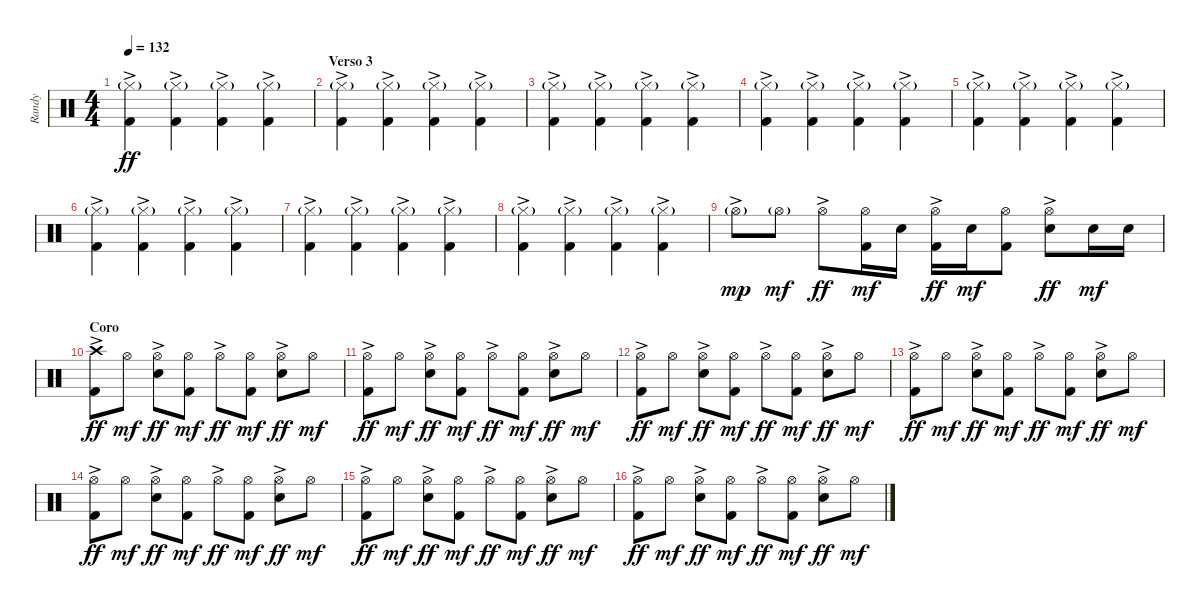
\track ("Randy" "Randy") {instrument percussion}
\staff {score}
\articulation defaults
\ts (4 4)
\tempo 132
\clef neutral
\ks c
("Hi-Hat (closed)"{g} "Kick (hit) 2"{ac}).4{dy ff} ("Hi-Hat (closed)"{g} "Kick (hit) 2"{ac}).4 ("Hi-Hat (closed)"{g} "Kick (hit) 2"{ac}).4 ("Hi-Hat (closed)"{g} "Kick (hit) 2"{ac}).4 |
\section ("" "Verso 3")
("Hi-Hat (closed)"{g} "Kick (hit) 2"{ac}).4 ("Hi-Hat (closed)"{g} "Kick (hit) 2"{ac}).4 ("Hi-Hat (closed)"{g} "Kick (hit) 2"{ac}).4 ("Hi-Hat (closed)"{g} "Kick (hit) 2"{ac}).4 |
("Hi-Hat (closed)"{g} "Kick (hit) 2"{ac}).4 ("Hi-Hat (closed)"{g} "Kick (hit) 2"{ac}).4 ("Hi-Hat (closed)"{g} "Kick (hit) 2"{ac}).4 ("Hi-Hat (closed)"{g} "Kick (hit) 2"{ac}).4 |
("Hi-Hat (closed)"{g} "Kick (hit) 2"{ac}).4 ("Hi-Hat (closed)"{g} "Kick (hit) 2"{ac}).4 ("Hi-Hat (closed)"{g} "Kick (hit) 2"{ac}).4 ("Hi-Hat (closed)"{g} "Kick (hit) 2"{ac}).4 |
("Hi-Hat (closed)"{g} "Kick (hit) 2"{ac}).4 ("Hi-Hat (closed)"{g} "Kick (hit) 2"{ac}).4 ("Hi-Hat (closed)"{g} "Kick (hit) 2"{ac}).4 ("Hi-Hat (closed)"{g} "Kick (hit) 2"{ac}).4 |
("Hi-Hat (closed)"{g} "Kick (hit) 2"{ac}).4 ("Hi-Hat (closed)"{g} "Kick (hit) 2"{ac}).4 ("Hi-Hat (closed)"{g} "Kick (hit) 2"{ac}).4 ("Hi-Hat (closed)"{g} "Kick (hit) 2"{ac}).4 |
("Hi-Hat (closed)"{g} "Kick (hit) 2"{ac}).4 ("Hi-Hat (closed)"{g} "Kick (hit) 2"{ac}).4 ("Hi-Hat (closed)"{g} "Kick (hit) 2"{ac}).4 ("Hi-Hat (closed)"{g} "Kick (hit) 2"{ac}).4 |
("Hi-Hat (closed)"{g} "Kick (hit) 2"{ac}).4 ("Hi-Hat (closed)"{g} "Kick (hit) 2"{ac}).4 ("Hi-Hat (closed)"{g} "Kick (hit) 2"{ac}).4 ("Hi-Hat (closed)"{g} "Kick (hit) 2"{ac}).4 |
"Hi-Hat (open)"{g ac}.8{dy mp} "Hi-Hat (open)"{g}.8{dy mf} "Hi-Hat (open)"{ac}.8{dy ff} ("Hi-Hat (open)" "Kick (hit) 2").16{dy mf} "Snare (hit) 2".16 ("Hi-Hat (open)"{ac} "Kick (hit) 2").16{dy ff} "Snare (hit) 2".16{dy mf} ("Hi-Hat (open)" "Kick (hit) 2").8 ("Hi-Hat (open)"{ac} "Snare (hit) 2").8{dy ff} "Snare (hit) 2".16{dy mf} "Snare (hit) 2".16 |
\section ("" "Coro")
("Crash high (hit)"{ac} "Kick (hit) 2").8{dy ff} "Hi-Hat (open)".8{dy mf} ("Hi-Hat (open)"{ac} "Snare (hit) 2").8{dy ff} ("Hi-Hat (open)" "Kick (hit) 2").8{dy mf} "Hi-Hat (open)"{ac}.8{dy ff} ("Hi-Hat (open)" "Kick (hit) 2").8{dy mf} ("Hi-Hat (open)"{ac} "Snare (hit) 2").8{dy ff} "Hi-Hat (open)".8{dy mf} |
("Hi-Hat (open)"{ac} "Kick (hit) 2").8{dy ff} "Hi-Hat (open)".8{dy mf} ("Hi-Hat (open)"{ac} "Snare (hit) 2").8{dy ff} ("Hi-Hat (open)" "Kick (hit) 2").8{dy mf} "Hi-Hat (open)"{ac}.8{dy ff} ("Hi-Hat (open)" "Kick (hit) 2").8{dy mf} ("Hi-Hat (open)"{ac} "Snare (hit) 2").8{dy ff} "Hi-Hat (open)".8{dy mf} |
("Hi-Hat (open)"{ac} "Kick (hit) 2").8{dy ff} "Hi-Hat (open)".8{dy mf} ("Hi-Hat (open)"{ac} "Snare (hit) 2").8{dy ff} ("Hi-Hat (open)" "Kick (hit) 2").8{dy mf} "Hi-Hat (open)"{ac}.8{dy ff} ("Hi-Hat (open)" "Kick (hit) 2").8{dy mf} ("Hi-Hat (open)"{ac} "Snare (hit) 2").8{dy ff} "Hi-Hat (open)".8{dy mf} |
("Hi-Hat (open)"{ac} "Kick (hit) 2").8{dy ff} "Hi-Hat (open)".8{dy mf} ("Hi-Hat (open)"{ac} "Snare (hit) 2").8{dy ff} ("Hi-Hat (open)" "Kick (hit) 2").8{dy mf} "Hi-Hat (open)"{ac}.8{dy ff} ("Hi-Hat (open)" "Kick (hit) 2").8{dy mf} ("Hi-Hat (open)"{ac} "Snare (hit) 2").8{dy ff} "Hi-Hat (open)".8{dy mf} |
("Hi-Hat (open)"{ac} "Kick (hit) 2").8{dy ff} "Hi-Hat (open)".8{dy mf} ("Hi-Hat (open)"{ac} "Snare (hit) 2").8{dy ff} ("Hi-Hat (open)" "Kick (hit) 2").8{dy mf} "Hi-Hat (open)"{ac}.8{dy ff} ("Hi-Hat (open)" "Kick (hit) 2").8{dy mf} ("Hi-Hat (open)"{ac} "Snare (hit) 2").8{dy ff} "Hi-Hat (open)".8{dy mf} |
("Hi-Hat (open)"{ac} "Kick (hit) 2").8{dy ff} "Hi-Hat (open)".8{dy mf} ("Hi-Hat (open)"{ac} "Snare (hit) 2").8{dy ff} ("Hi-Hat (open)" "Kick (hit) 2").8{dy mf} "Hi-Hat (open)"{ac}.8{dy ff} ("Hi-Hat (open)" "Kick (hit) 2").8{dy mf} ("Hi-Hat (open)"{ac} "Snare (hit) 2").8{dy ff} "Hi-Hat (open)".8{dy mf} |
("Hi-Hat (open)"{ac} "Kick (hit) 2").8{dy ff} "Hi-Hat (open)".8{dy mf} ("Hi-Hat (open)"{ac} "Snare (hit) 2").8{dy ff} ("Hi-Hat (open)" "Kick (hit) 2").8{dy mf} "Hi-Hat (open)"{ac}.8{dy ff} ("Hi-Hat (open)" "Kick (hit) 2").8{dy mf} ("Hi-Hat (open)"{ac} "Snare (hit) 2").8{dy ff} "Hi-Hat (open)".8{dy mf}
